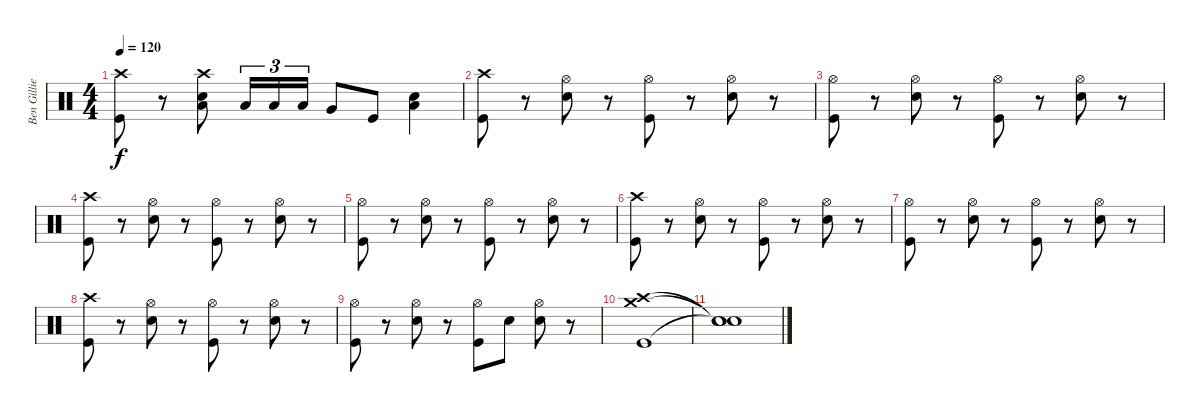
\track ("Ben Gillies" "Ben Gillie") {instrument percussion}
\staff {score}
\articulation defaults
\ts (4 4)
\tempo 120
\clef neutral
\ks c
("Crash high (hit)" "Kick (hit)").8{dy f} r.8 ("Electric Snare (hit)" "Crash high (hit)" "Low Tom (hit)").8 "Low Tom (hit)".16{tu (3 2)} "Low Tom (hit)".16{tu (3 2)} "Low Tom (hit)".16{tu (3 2)} "Very Low Tom (hit)".8 "Kick (hit)".8 ("Electric Snare (hit)" "Low Floor Tom (hit)").4 |
("Crash high (hit)" "Kick (hit)").8 r.8 ("Electric Snare (hit)" "Hi-Hat (open)").8 r.8 ("Hi-Hat (open)" "Kick (hit)").8 r.8 ("Electric Snare (hit)" "Hi-Hat (open)").8 r.8 |
("Hi-Hat (open)" "Kick (hit)").8 r.8 ("Electric Snare (hit)" "Hi-Hat (open)").8 r.8 ("Hi-Hat (open)" "Kick (hit)").8 r.8 ("Electric Snare (hit)" "Hi-Hat (open)").8 r.8 |
("Crash high (hit)" "Kick (hit)").8 r.8 ("Electric Snare (hit)" "Hi-Hat (open)").8 r.8 ("Hi-Hat (open)" "Kick (hit)").8 r.8 ("Electric Snare (hit)" "Hi-Hat (open)").8 r.8 |
("Hi-Hat (open)" "Kick (hit)").8 r.8 ("Electric Snare (hit)" "Hi-Hat (open)").8 r.8 ("Hi-Hat (open)" "Kick (hit)").8 r.8 ("Electric Snare (hit)" "Hi-Hat (open)").8 r.8 |
("Crash high (hit)" "Kick (hit)").8 r.8 ("Electric Snare (hit)" "Hi-Hat (open)").8 r.8 ("Hi-Hat (open)" "Kick (hit)").8 r.8 ("Electric Snare (hit)" "Hi-Hat (open)").8 r.8 |
("Hi-Hat (open)" "Kick (hit)").8 r.8 ("Electric Snare (hit)" "Hi-Hat (open)").8 r.8 ("Hi-Hat (open)" "Kick (hit)").8 r.8 ("Electric Snare (hit)" "Hi-Hat (open)").8 r.8 |
("Crash high (hit)" "Kick (hit)").8 r.8 ("Electric Snare (hit)" "Hi-Hat (open)").8 r.8 ("Hi-Hat (open)" "Kick (hit)").8 r.8 ("Electric Snare (hit)" "Hi-Hat (open)").8 r.8 |
("Hi-Hat (open)" "Kick (hit)").8 r.8 ("Electric Snare (hit)" "Hi-Hat (open)").8 r.8 ("Hi-Hat (open)" "Kick (hit)").8 "Electric Snare (hit)".8 ("Electric Snare (hit)" "Hi-Hat (open)").8 r.8 |
("Crash medium (hit)" "Crash high (hit)" "Kick (hit)").1 |
("Snare (hit)"{t} "Snare (hit)"{t} "Snare (hit)"{t}).1
